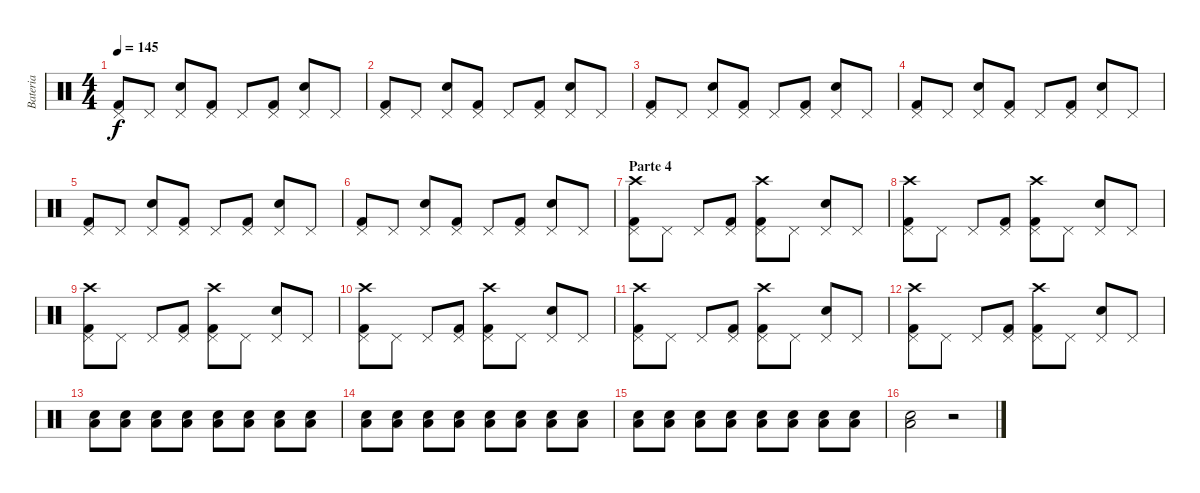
\track ("Bateria" "Bateria") {instrument percussion}
\staff {score}
\articulation defaults
\ts (4 4)
\tempo 145
\clef neutral
\ks c
("Kick (hit) 2" "Pedal Hi-Hat (hit)").8{dy f} "Pedal Hi-Hat (hit)".8 ("Pedal Hi-Hat (hit)" "Snare (hit) 2").8 ("Kick (hit) 2" "Pedal Hi-Hat (hit)").8 "Pedal Hi-Hat (hit)".8 ("Kick (hit) 2" "Pedal Hi-Hat (hit)").8 ("Pedal Hi-Hat (hit)" "Snare (hit) 2").8 "Pedal Hi-Hat (hit)".8 |
("Kick (hit) 2" "Pedal Hi-Hat (hit)").8 "Pedal Hi-Hat (hit)".8 ("Pedal Hi-Hat (hit)" "Snare (hit) 2").8 ("Kick (hit) 2" "Pedal Hi-Hat (hit)").8 "Pedal Hi-Hat (hit)".8 ("Kick (hit) 2" "Pedal Hi-Hat (hit)").8 ("Pedal Hi-Hat (hit)" "Snare (hit) 2").8 "Pedal Hi-Hat (hit)".8 |
("Kick (hit) 2" "Pedal Hi-Hat (hit)").8 "Pedal Hi-Hat (hit)".8 ("Pedal Hi-Hat (hit)" "Snare (hit) 2").8 ("Kick (hit) 2" "Pedal Hi-Hat (hit)").8 "Pedal Hi-Hat (hit)".8 ("Kick (hit) 2" "Pedal Hi-Hat (hit)").8 ("Pedal Hi-Hat (hit)" "Snare (hit) 2").8 "Pedal Hi-Hat (hit)".8 |
("Kick (hit) 2" "Pedal Hi-Hat (hit)").8 "Pedal Hi-Hat (hit)".8 ("Pedal Hi-Hat (hit)" "Snare (hit) 2").8 ("Kick (hit) 2" "Pedal Hi-Hat (hit)").8 "Pedal Hi-Hat (hit)".8 ("Kick (hit) 2" "Pedal Hi-Hat (hit)").8 ("Pedal Hi-Hat (hit)" "Snare (hit) 2").8 "Pedal Hi-Hat (hit)".8 |
("Kick (hit) 2" "Pedal Hi-Hat (hit)").8 "Pedal Hi-Hat (hit)".8 ("Pedal Hi-Hat (hit)" "Snare (hit) 2").8 ("Kick (hit) 2" "Pedal Hi-Hat (hit)").8 "Pedal Hi-Hat (hit)".8 ("Kick (hit) 2" "Pedal Hi-Hat (hit)").8 ("Pedal Hi-Hat (hit)" "Snare (hit) 2").8 "Pedal Hi-Hat (hit)".8 |
("Kick (hit) 2" "Pedal Hi-Hat (hit)").8 "Pedal Hi-Hat (hit)".8 ("Pedal Hi-Hat (hit)" "Snare (hit) 2").8 ("Kick (hit) 2" "Pedal Hi-Hat (hit)").8 "Pedal Hi-Hat (hit)".8 ("Kick (hit) 2" "Pedal Hi-Hat (hit)").8 ("Pedal Hi-Hat (hit)" "Snare (hit) 2").8 "Pedal Hi-Hat (hit)".8 |
\section ("" "Parte 4")
("Kick (hit) 2" "Pedal Hi-Hat (hit)" "Crash high (hit)").8 "Pedal Hi-Hat (hit)".8 "Pedal Hi-Hat (hit)".8 ("Kick (hit) 2" "Pedal Hi-Hat (hit)").8 ("Kick (hit) 2" "Pedal Hi-Hat (hit)" "Crash high (hit)").8 "Pedal Hi-Hat (hit)".8 ("Snare (hit) 2" "Pedal Hi-Hat (hit)").8 "Pedal Hi-Hat (hit)".8 |
("Kick (hit) 2" "Pedal Hi-Hat (hit)" "Crash high (hit)").8 "Pedal Hi-Hat (hit)".8 "Pedal Hi-Hat (hit)".8 ("Kick (hit) 2" "Pedal Hi-Hat (hit)").8 ("Kick (hit) 2" "Pedal Hi-Hat (hit)" "Crash high (hit)").8 "Pedal Hi-Hat (hit)".8 ("Snare (hit) 2" "Pedal Hi-Hat (hit)").8 "Pedal Hi-Hat (hit)".8 |
("Kick (hit) 2" "Pedal Hi-Hat (hit)" "Crash high (hit)").8 "Pedal Hi-Hat (hit)".8 "Pedal Hi-Hat (hit)".8 ("Kick (hit) 2" "Pedal Hi-Hat (hit)").8 ("Kick (hit) 2" "Pedal Hi-Hat (hit)" "Crash high (hit)").8 "Pedal Hi-Hat (hit)".8 ("Snare (hit) 2" "Pedal Hi-Hat (hit)").8 "Pedal Hi-Hat (hit)".8 |
("Kick (hit) 2" "Pedal Hi-Hat (hit)" "Crash high (hit)").8 "Pedal Hi-Hat (hit)".8 "Pedal Hi-Hat (hit)".8 ("Kick (hit) 2" "Pedal Hi-Hat (hit)").8 ("Kick (hit) 2" "Pedal Hi-Hat (hit)" "Crash high (hit)").8 "Pedal Hi-Hat (hit)".8 ("Snare (hit) 2" "Pedal Hi-Hat (hit)").8 "Pedal Hi-Hat (hit)".8 |
("Kick (hit) 2" "Pedal Hi-Hat (hit)" "Crash high (hit)").8 "Pedal Hi-Hat (hit)".8 "Pedal Hi-Hat (hit)".8 ("Kick (hit) 2" "Pedal Hi-Hat (hit)").8 ("Kick (hit) 2" "Pedal Hi-Hat (hit)" "Crash high (hit)").8 "Pedal Hi-Hat (hit)".8 ("Snare (hit) 2" "Pedal Hi-Hat (hit)").8 "Pedal Hi-Hat (hit)".8 |
("Kick (hit) 2" "Pedal Hi-Hat (hit)" "Crash high (hit)").8 "Pedal Hi-Hat (hit)".8 "Pedal Hi-Hat (hit)".8 ("Kick (hit) 2" "Pedal Hi-Hat (hit)").8 ("Kick (hit) 2" "Pedal Hi-Hat (hit)" "Crash high (hit)").8 "Pedal Hi-Hat (hit)".8 ("Snare (hit) 2" "Pedal Hi-Hat (hit)").8 "Pedal Hi-Hat (hit)".8 |
("Snare (hit) 2" "Low Floor Tom (hit)").8 ("Snare (hit) 2" "Low Floor Tom (hit)").8 ("Snare (hit) 2" "Low Floor Tom (hit)").8 ("Snare (hit) 2" "Low Floor Tom (hit)").8 ("Snare (hit) 2" "Low Floor Tom (hit)").8 ("Snare (hit) 2" "Low Floor Tom (hit)").8 ("Snare (hit) 2" "Low Floor Tom (hit)").8 ("Snare (hit) 2" "Low Floor Tom (hit)").8 |
("Snare (hit) 2" "Low Floor Tom (hit)").8 ("Snare (hit) 2" "Low Floor Tom (hit)").8 ("Snare (hit) 2" "Low Floor Tom (hit)").8 ("Snare (hit) 2" "Low Floor Tom (hit)").8 ("Snare (hit) 2" "Low Floor Tom (hit)").8 ("Snare (hit) 2" "Low Floor Tom (hit)").8 ("Snare (hit) 2" "Low Floor Tom (hit)").8 ("Snare (hit) 2" "Low Floor Tom (hit)").8 |
("Snare (hit) 2" "Low Floor Tom (hit)").8 ("Snare (hit) 2" "Low Floor Tom (hit)").8 ("Snare (hit) 2" "Low Floor Tom (hit)").8 ("Snare (hit) 2" "Low Floor Tom (hit)").8 ("Snare (hit) 2" "Low Floor Tom (hit)").8 ("Snare (hit) 2" "Low Floor Tom (hit)").8 ("Snare (hit) 2" "Low Floor Tom (hit)").8 ("Snare (hit) 2" "Low Floor Tom (hit)").8 |
("Snare (hit) 2" "Low Floor Tom (hit)").2 r.2
